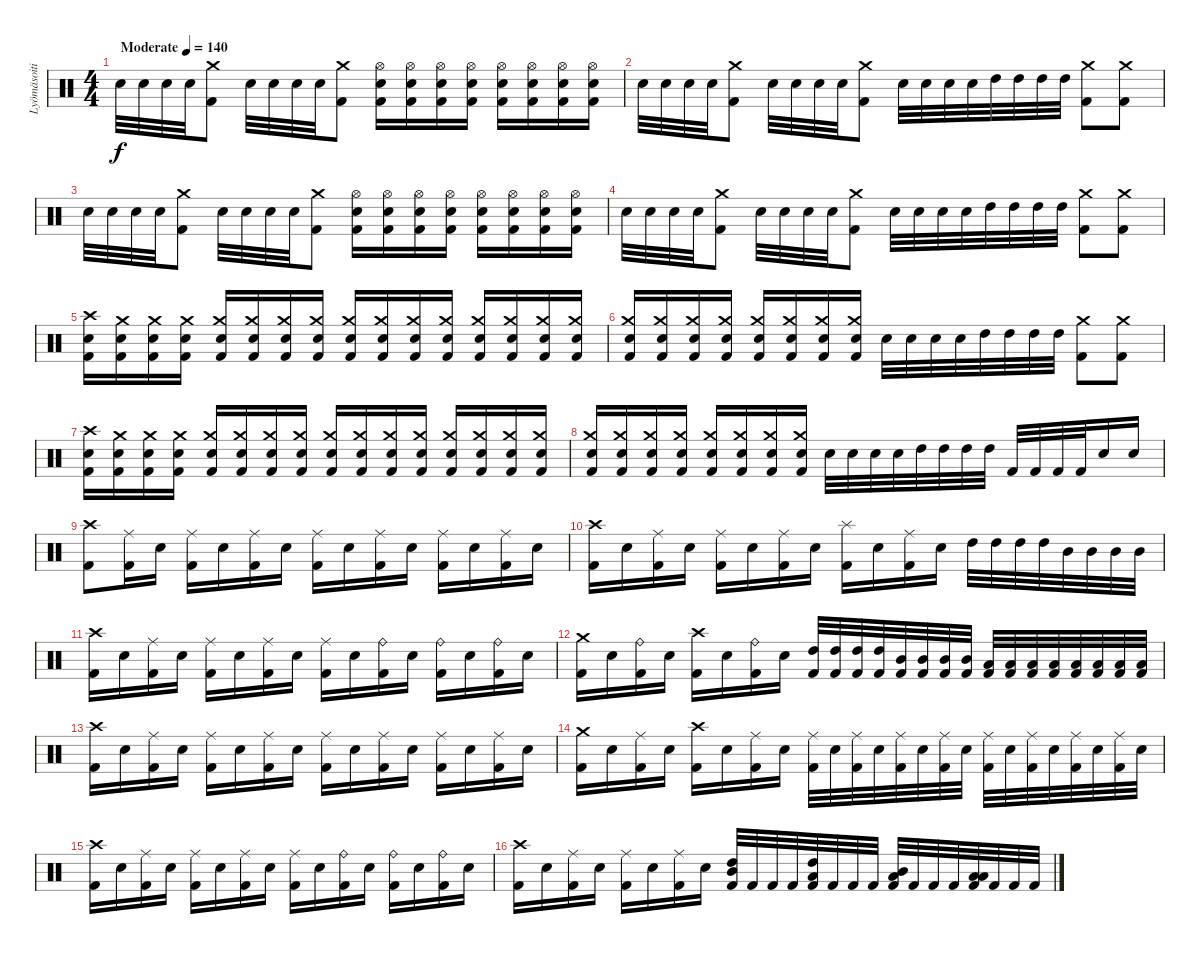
\track ("Lyömäsoitin" "Lyömäsoiti") {instrument percussion}
\staff {score}
\articulation defaults
\ts (4 4)
\tempo (140 "Moderate")
\clef neutral
\ks c "Snare (hit) 2".32{dy f} "Snare (hit) 2".32 "Snare (hit) 2".32 "Snare (hit) 2".32
("Crash medium (hit)" "Kick (hit) 2").8 "Snare (hit) 2".32 "Snare (hit) 2".32 "Snare (hit) 2".32 "Snare (hit) 2".32 ("Crash medium (hit)" "Kick (hit) 2").8 ("Hi-Hat (open)" "Snare (hit) 2" "Kick (hit) 2").16 ("Hi-Hat (open)" "Snare (hit) 2" "Kick (hit) 2").16 ("Hi-Hat (open)" "Snare (hit) 2" "Kick (hit) 2").16 ("Hi-Hat (open)" "Snare (hit) 2" "Kick (hit) 2").16 ("Hi-Hat (open)" "Snare (hit) 2" "Kick (hit) 2").16 ("Hi-Hat (open)" "Snare (hit) 2" "Kick (hit) 2").16 ("Hi-Hat (open)" "Snare (hit) 2" "Kick (hit) 2").16 ("Hi-Hat (open)" "Snare (hit) 2" "Kick (hit) 2").16 |
"Snare (hit) 2".32 "Snare (hit) 2".32 "Snare (hit) 2".32 "Snare (hit) 2".32 ("Crash medium (hit)" "Kick (hit) 2").8 "Snare (hit) 2".32 "Snare (hit) 2".32 "Snare (hit) 2".32 "Snare (hit) 2".32 ("Crash medium (hit)" "Kick (hit) 2").8 "Snare (hit) 2".32 "Snare (hit) 2".32 "Snare (hit) 2".32 "Snare (hit) 2".32 "High Tom (hit)".32 "High Tom (hit)".32 "High Tom (hit)".32 "High Tom (hit)".32 ("Crash medium (hit)" "Kick (hit) 2").8 ("Crash medium (hit)" "Kick (hit) 2").8 |
"Snare (hit) 2".32 "Snare (hit) 2".32 "Snare (hit) 2".32 "Snare (hit) 2".32 ("Crash medium (hit)" "Kick (hit) 2").8 "Snare (hit) 2".32 "Snare (hit) 2".32 "Snare (hit) 2".32 "Snare (hit) 2".32 ("Crash medium (hit)" "Kick (hit) 2").8 ("Hi-Hat (open)" "Snare (hit) 2" "Kick (hit) 2").16 ("Hi-Hat (open)" "Snare (hit) 2" "Kick (hit) 2").16 ("Hi-Hat (open)" "Snare (hit) 2" "Kick (hit) 2").16 ("Hi-Hat (open)" "Snare (hit) 2" "Kick (hit) 2").16 ("Hi-Hat (open)" "Snare (hit) 2" "Kick (hit) 2").16 ("Hi-Hat (open)" "Snare (hit) 2" "Kick (hit) 2").16 ("Hi-Hat (open)" "Snare (hit) 2" "Kick (hit) 2").16 ("Hi-Hat (open)" "Snare (hit) 2" "Kick (hit) 2").16 |
"Snare (hit) 2".32 "Snare (hit) 2".32 "Snare (hit) 2".32 "Snare (hit) 2".32 ("Crash medium (hit)" "Kick (hit) 2").8 "Snare (hit) 2".32 "Snare (hit) 2".32 "Snare (hit) 2".32 "Snare (hit) 2".32 ("Crash medium (hit)" "Kick (hit) 2").8 "Snare (hit) 2".32 "Snare (hit) 2".32 "Snare (hit) 2".32 "Snare (hit) 2".32 "High Tom (hit)".32 "High Tom (hit)".32 "High Tom (hit)".32 "High Tom (hit)".32 ("Crash medium (hit)" "Kick (hit) 2").8 ("Crash medium (hit)" "Kick (hit) 2").8 |
("Crash high (hit)" "Snare (hit) 2" "Kick (hit) 2").16 ("Crash medium (hit)" "Snare (hit) 2" "Kick (hit) 2").16 ("Crash medium (hit)" "Snare (hit) 2" "Kick (hit) 2").16 ("Crash medium (hit)" "Snare (hit) 2" "Kick (hit) 2").16 ("Crash medium (hit)" "Snare (hit) 2" "Kick (hit) 2").16 ("Crash medium (hit)" "Snare (hit) 2" "Kick (hit) 2").16 ("Crash medium (hit)" "Snare (hit) 2" "Kick (hit) 2").16 ("Crash medium (hit)" "Snare (hit) 2" "Kick (hit) 2").16 ("Crash medium (hit)" "Snare (hit) 2" "Kick (hit) 2").16 ("Crash medium (hit)" "Snare (hit) 2" "Kick (hit) 2").16 ("Crash medium (hit)" "Snare (hit) 2" "Kick (hit) 2").16 ("Crash medium (hit)" "Snare (hit) 2" "Kick (hit) 2").16 ("Crash medium (hit)" "Snare (hit) 2" "Kick (hit) 2").16 ("Crash medium (hit)" "Snare (hit) 2" "Kick (hit) 2").16 ("Crash medium (hit)" "Snare (hit) 2" "Kick (hit) 2").16 ("Crash medium (hit)" "Snare (hit) 2" "Kick (hit) 2").16 |
("Crash medium (hit)" "Snare (hit) 2" "Kick (hit) 2").16 ("Crash medium (hit)" "Snare (hit) 2" "Kick (hit) 2").16 ("Crash medium (hit)" "Snare (hit) 2" "Kick (hit) 2").16 ("Crash medium (hit)" "Snare (hit) 2" "Kick (hit) 2").16 ("Crash medium (hit)" "Snare (hit) 2" "Kick (hit) 2").16 ("Crash medium (hit)" "Snare (hit) 2" "Kick (hit) 2").16 ("Crash medium (hit)" "Snare (hit) 2" "Kick (hit) 2").16 ("Crash medium (hit)" "Snare (hit) 2" "Kick (hit) 2").16 "Snare (hit) 2".32 "Snare (hit) 2".32 "Snare (hit) 2".32 "Snare (hit) 2".32 "High Tom (hit)".32 "High Tom (hit)".32 "High Tom (hit)".32 "High Tom (hit)".32 ("Crash medium (hit)" "Kick (hit) 2").8 ("Crash medium (hit)" "Kick (hit) 2").8 |
("Crash high (hit)" "Snare (hit) 2" "Kick (hit) 2").16 ("Crash medium (hit)" "Snare (hit) 2" "Kick (hit) 2").16 ("Crash medium (hit)" "Snare (hit) 2" "Kick (hit) 2").16 ("Crash medium (hit)" "Snare (hit) 2" "Kick (hit) 2").16 ("Crash medium (hit)" "Snare (hit) 2" "Kick (hit) 2").16 ("Crash medium (hit)" "Snare (hit) 2" "Kick (hit) 2").16 ("Crash medium (hit)" "Snare (hit) 2" "Kick (hit) 2").16 ("Crash medium (hit)" "Snare (hit) 2" "Kick (hit) 2").16 ("Crash medium (hit)" "Snare (hit) 2" "Kick (hit) 2").16 ("Crash medium (hit)" "Snare (hit) 2" "Kick (hit) 2").16 ("Crash medium (hit)" "Snare (hit) 2" "Kick (hit) 2").16 ("Crash medium (hit)" "Snare (hit) 2" "Kick (hit) 2").16 ("Crash medium (hit)" "Snare (hit) 2" "Kick (hit) 2").16 ("Crash medium (hit)" "Snare (hit) 2" "Kick (hit) 2").16 ("Crash medium (hit)" "Snare (hit) 2" "Kick (hit) 2").16 ("Crash medium (hit)" "Snare (hit) 2" "Kick (hit) 2").16 |
("Crash medium (hit)" "Snare (hit) 2" "Kick (hit) 2").16 ("Crash medium (hit)" "Snare (hit) 2" "Kick (hit) 2").16 ("Crash medium (hit)" "Snare (hit) 2" "Kick (hit) 2").16 ("Crash medium (hit)" "Snare (hit) 2" "Kick (hit) 2").16 ("Crash medium (hit)" "Snare (hit) 2" "Kick (hit) 2").16 ("Crash medium (hit)" "Snare (hit) 2" "Kick (hit) 2").16 ("Crash medium (hit)" "Snare (hit) 2" "Kick (hit) 2").16 ("Crash medium (hit)" "Snare (hit) 2" "Kick (hit) 2").16 "Snare (hit) 2".32 "Snare (hit) 2".32 "Snare (hit) 2".32 "Snare (hit) 2".32 "High Tom (hit)".32 "High Tom (hit)".32 "High Tom (hit)".32 "High Tom (hit)".32 "Kick (hit) 2".32 "Kick (hit) 2".32 "Kick (hit) 2".32 "Kick (hit) 2".32 "Snare (hit) 2".16 "Snare (hit) 2".16 |
("Crash high (hit)" "Kick (hit) 2").8 ("Ride (middle)" "Kick (hit) 2").16 "Snare (hit) 2".16 ("Ride (middle)" "Kick (hit) 2").16 "Snare (hit) 2".16 ("Ride (middle)" "Kick (hit) 2").16 "Snare (hit) 2".16 ("Ride (middle)" "Kick (hit) 2").16 "Snare (hit) 2".16 ("Ride (middle)" "Kick (hit) 2").16 "Snare (hit) 2".16 ("Ride (middle)" "Kick (hit) 2").16 "Snare (hit) 2".16 ("Ride (middle)" "Kick (hit) 2").16 "Snare (hit) 2".16 |
("Crash high (hit)" "Kick (hit) 2").16 "Snare (hit) 2".16 ("Ride (middle)" "Kick (hit) 2").16 "Snare (hit) 2".16 ("Ride (middle)" "Kick (hit) 2").16 "Snare (hit) 2".16 ("Ride (middle)" "Kick (hit) 2").16 "Snare (hit) 2".16 ("Splash (hit)" "Kick (hit) 2").16 "Snare (hit) 2".16 ("Ride (middle)" "Kick (hit) 2").16 "Snare (hit) 2".16 "High Tom (hit)".32 "High Tom (hit)".32 "High Tom (hit)".32 "High Tom (hit)".32 "Mid Tom (hit)".32 "Mid Tom (hit)".32 "Mid Tom (hit)".32 "Mid Tom (hit)".32 |
("Crash high (hit)" "Kick (hit) 2").16 "Snare (hit) 2".16 ("Ride (middle)" "Kick (hit) 2").16 "Snare (hit) 2".16 ("Ride (middle)" "Kick (hit) 2").16 "Snare (hit) 2".16 ("Ride (middle)" "Kick (hit) 2").16 "Snare (hit) 2".16 ("Ride (middle)" "Kick (hit) 2").16 "Snare (hit) 2".16 ("Ride (bell)" "Kick (hit) 2").16 "Snare (hit) 2".16 ("Ride (bell)" "Kick (hit) 2").16 "Snare (hit) 2".16 ("Ride (bell)" "Kick (hit) 2").16 "Snare (hit) 2".16 |
("Crash medium (hit)" "Kick (hit) 2").16 "Snare (hit) 2".16 ("Ride (bell)" "Kick (hit) 2").16 "Snare (hit) 2".16 ("Crash high (hit)" "Kick (hit) 2").16 "Snare (hit) 2".16 ("Ride (bell)" "Kick (hit) 2").16 "Snare (hit) 2".16 ("High Tom (hit)" "Kick (hit) 2").32 ("High Tom (hit)" "Kick (hit) 2").32 ("High Tom (hit)" "Kick (hit) 2").32 ("High Tom (hit)" "Kick (hit) 2").32 ("Mid Tom (hit)" "Kick (hit) 2").32 ("Mid Tom (hit)" "Kick (hit) 2").32 ("Mid Tom (hit)" "Kick (hit) 2").32 ("Mid Tom (hit)" "Kick (hit) 2").32 ("Low Tom (hit)" "Kick (hit) 2").32 ("Low Tom (hit)" "Kick (hit) 2").32 ("Low Tom (hit)" "Kick (hit) 2").32 ("Low Tom (hit)" "Kick (hit) 2").32 ("Low Floor Tom (hit)" "Kick (hit) 2").32 ("Low Floor Tom (hit)" "Kick (hit) 2").32 ("Low Floor Tom (hit)" "Kick (hit) 2").32 ("Low Floor Tom (hit)" "Kick (hit) 2").32 |
("Crash high (hit)" "Kick (hit) 2").16 "Snare (hit) 2".16 ("Ride (middle)" "Kick (hit) 2").16 "Snare (hit) 2".16 ("Ride (middle)" "Kick (hit) 2").16 "Snare (hit) 2".16 ("Ride (middle)" "Kick (hit) 2").16 "Snare (hit) 2".16 ("Ride (middle)" "Kick (hit) 2").16 "Snare (hit) 2".16 ("Ride (middle)" "Kick (hit) 2").16 "Snare (hit) 2".16 ("Ride (middle)" "Kick (hit) 2").16 "Snare (hit) 2".16 ("Ride (middle)" "Kick (hit) 2").16 "Snare (hit) 2".16 |
("Crash medium (hit)" "Kick (hit) 2").16 "Snare (hit) 2".16 ("Ride (middle)" "Kick (hit) 2").16 "Snare (hit) 2".16 ("Crash high (hit)" "Kick (hit) 2").16 "Snare (hit) 2".16 ("Ride (middle)" "Kick (hit) 2").16 "Snare (hit) 2".16 ("Ride (middle)" "Kick (hit) 2").32 "Snare (hit) 2".32 ("Ride (middle)" "Kick (hit) 2").32 "Snare (hit) 2".32 ("Ride (middle)" "Kick (hit) 2").32 "Snare (hit) 2".32 ("Ride (middle)" "Kick (hit) 2").32 "Snare (hit) 2".32 ("Ride (middle)" "Kick (hit) 2").32 "Snare (hit) 2".32 ("Ride (middle)" "Kick (hit) 2").32 "Snare (hit) 2".32 ("Ride (middle)" "Kick (hit) 2").32 "Snare (hit) 2".32 ("Ride (middle)" "Kick (hit) 2").32 "Snare (hit) 2".32 |
("Crash high (hit)" "Kick (hit) 2").16 "Snare (hit) 2".16 ("Ride (middle)" "Kick (hit) 2").16 "Snare (hit) 2".16 ("Ride (middle)" "Kick (hit) 2").16 "Snare (hit) 2".16 ("Ride (middle)" "Kick (hit) 2").16 "Snare (hit) 2".16 ("Ride (middle)" "Kick (hit) 2").16 "Snare (hit) 2".16 ("Ride (bell)" "Kick (hit) 2").16 "Snare (hit) 2".16 ("Ride (bell)" "Kick (hit) 2").16 "Snare (hit) 2".16 ("Ride (bell)" "Kick (hit) 2").16 "Snare (hit) 2".16 |
("Crash high (hit)" "Kick (hit) 2").16 "Snare (hit) 2".16 ("Ride (middle)" "Kick (hit) 2").16 "Snare (hit) 2".16 ("Ride (middle)" "Kick (hit) 2").16 "Snare (hit) 2".16 ("Ride (middle)" "Kick (hit) 2").16 "Snare (hit) 2".16 ("Mid Tom (hit)" "High Tom (hit)" "Kick (hit) 2").32 "Kick (hit) 2".32 "Kick (hit) 2".32 "Kick (hit) 2".32 ("High Tom (hit)" "Low Floor Tom (hit)" "Kick (hit) 2").32 "Kick (hit) 2".32 "Kick (hit) 2".32 "Kick (hit) 2".32 ("Mid Tom (hit)" "Low Floor Tom (hit)" "Kick (hit) 2").32 "Kick (hit) 2".32 "Kick (hit) 2".32 "Kick (hit) 2".32 ("Low Tom (hit)" "Low Floor Tom (hit)" "Kick (hit) 2").32 "Kick (hit) 2".32 "Kick (hit) 2".32 "Kick (hit) 2".32
